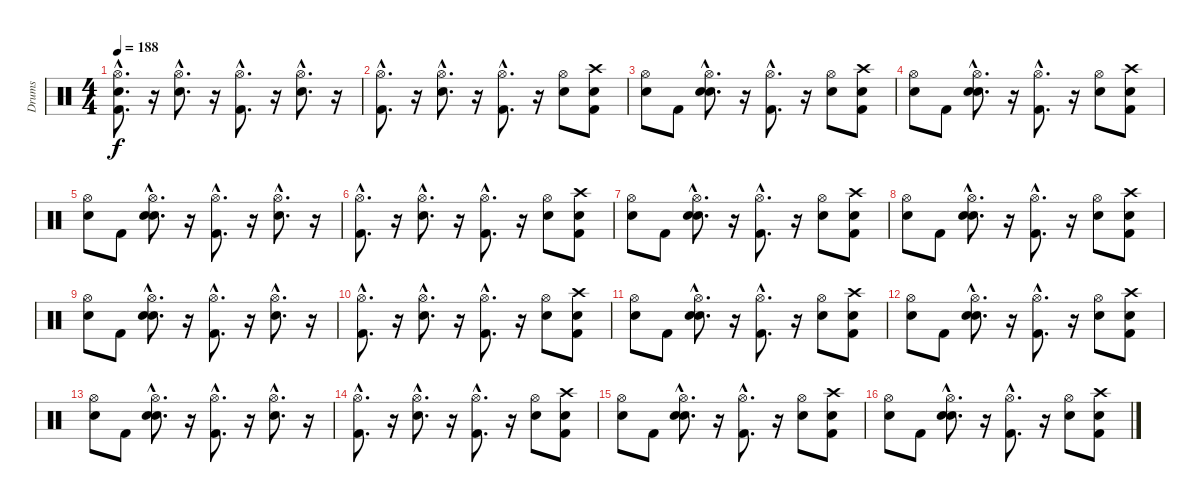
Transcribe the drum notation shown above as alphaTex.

\track ("Drums" "Drums") {instrument percussion}
\staff {score}
\articulation defaults
\ts (4 4)
\tempo 188
\clef neutral
\ks c
("Snare (hit)"{hac} "Kick (hit) 2"{hac} "Hi-Hat (open)"{hac}).8{d dy f} r.16 ("Snare (hit) 2"{hac} "Hi-Hat (open)"{hac}).8{d} r.16 ("Kick (hit) 2"{hac} "Hi-Hat (open)"{hac}).8{d} r.16 ("Snare (hit) 2"{hac} "Hi-Hat (open)"{hac}).8{d} r.16 |
("Kick (hit) 2"{hac} "Hi-Hat (open)"{hac}).8{d} r.16 ("Snare (hit) 2"{hac} "Hi-Hat (open)"{hac}).8{d} r.16 ("Kick (hit) 2"{hac} "Hi-Hat (open)"{hac}).8{d} r.16 ("Snare (hit) 2" "Hi-Hat (open)").8 ("Snare (hit)" "Kick (hit) 2" "Crash high (hit)").8 |
("Snare (hit)" "Hi-Hat (open)").8 "Kick (hit) 2".8 ("Snare (hit)"{hac} "Snare (hit) 2"{hac} "Hi-Hat (open)"{hac}).8{d} r.16 ("Kick (hit) 2"{hac} "Hi-Hat (open)"{hac}).8{d} r.16 ("Snare (hit) 2" "Hi-Hat (open)").8 ("Snare (hit)" "Kick (hit) 2" "Crash high (hit)").8 |
("Snare (hit)" "Hi-Hat (open)").8 "Kick (hit) 2".8 ("Snare (hit)"{hac} "Snare (hit) 2"{hac} "Hi-Hat (open)"{hac}).8{d} r.16 ("Kick (hit) 2"{hac} "Hi-Hat (open)"{hac}).8{d} r.16 ("Snare (hit) 2" "Hi-Hat (open)").8 ("Snare (hit)" "Kick (hit) 2" "Crash high (hit)").8 |
("Snare (hit)" "Hi-Hat (open)").8 "Kick (hit) 2".8 ("Snare (hit)"{hac} "Snare (hit) 2"{hac} "Hi-Hat (open)"{hac}).8{d} r.16 ("Kick (hit) 2"{hac} "Hi-Hat (open)"{hac}).8{d} r.16 ("Snare (hit) 2"{hac} "Hi-Hat (open)"{hac}).8{d} r.16 |
("Kick (hit) 2"{hac} "Hi-Hat (open)"{hac}).8{d} r.16 ("Snare (hit) 2"{hac} "Hi-Hat (open)"{hac}).8{d} r.16 ("Kick (hit) 2"{hac} "Hi-Hat (open)"{hac}).8{d} r.16 ("Snare (hit) 2" "Hi-Hat (open)").8 ("Snare (hit)" "Kick (hit) 2" "Crash high (hit)").8 |
("Snare (hit)" "Hi-Hat (open)").8 "Kick (hit) 2".8 ("Snare (hit)"{hac} "Snare (hit) 2"{hac} "Hi-Hat (open)"{hac}).8{d} r.16 ("Kick (hit) 2"{hac} "Hi-Hat (open)"{hac}).8{d} r.16 ("Snare (hit) 2" "Hi-Hat (open)").8 ("Snare (hit)" "Kick (hit) 2" "Crash high (hit)").8 |
("Snare (hit)" "Hi-Hat (open)").8 "Kick (hit) 2".8 ("Snare (hit)"{hac} "Snare (hit) 2"{hac} "Hi-Hat (open)"{hac}).8{d} r.16 ("Kick (hit) 2"{hac} "Hi-Hat (open)"{hac}).8{d} r.16 ("Snare (hit) 2" "Hi-Hat (open)").8 ("Snare (hit)" "Kick (hit) 2" "Crash high (hit)").8 |
("Snare (hit)" "Hi-Hat (open)").8 "Kick (hit) 2".8 ("Snare (hit)"{hac} "Snare (hit) 2"{hac} "Hi-Hat (open)"{hac}).8{d} r.16 ("Kick (hit) 2"{hac} "Hi-Hat (open)"{hac}).8{d} r.16 ("Snare (hit) 2"{hac} "Hi-Hat (open)"{hac}).8{d} r.16 |
("Kick (hit) 2"{hac} "Hi-Hat (open)"{hac}).8{d} r.16 ("Snare (hit) 2"{hac} "Hi-Hat (open)"{hac}).8{d} r.16 ("Kick (hit) 2"{hac} "Hi-Hat (open)"{hac}).8{d} r.16 ("Snare (hit) 2" "Hi-Hat (open)").8 ("Snare (hit)" "Kick (hit) 2" "Crash high (hit)").8 |
("Snare (hit)" "Hi-Hat (open)").8 "Kick (hit) 2".8 ("Snare (hit)"{hac} "Snare (hit) 2"{hac} "Hi-Hat (open)"{hac}).8{d} r.16 ("Kick (hit) 2"{hac} "Hi-Hat (open)"{hac}).8{d} r.16 ("Snare (hit) 2" "Hi-Hat (open)").8 ("Snare (hit)" "Kick (hit) 2" "Crash high (hit)").8 |
("Snare (hit)" "Hi-Hat (open)").8 "Kick (hit) 2".8 ("Snare (hit)"{hac} "Snare (hit) 2"{hac} "Hi-Hat (open)"{hac}).8{d} r.16 ("Kick (hit) 2"{hac} "Hi-Hat (open)"{hac}).8{d} r.16 ("Snare (hit) 2" "Hi-Hat (open)").8 ("Snare (hit)" "Kick (hit) 2" "Crash high (hit)").8 |
("Snare (hit)" "Hi-Hat (open)").8 "Kick (hit) 2".8 ("Snare (hit)"{hac} "Snare (hit) 2"{hac} "Hi-Hat (open)"{hac}).8{d} r.16 ("Kick (hit) 2"{hac} "Hi-Hat (open)"{hac}).8{d} r.16 ("Snare (hit) 2"{hac} "Hi-Hat (open)"{hac}).8{d} r.16 |
("Kick (hit) 2"{hac} "Hi-Hat (open)"{hac}).8{d} r.16 ("Snare (hit) 2"{hac} "Hi-Hat (open)"{hac}).8{d} r.16 ("Kick (hit) 2"{hac} "Hi-Hat (open)"{hac}).8{d} r.16 ("Snare (hit) 2" "Hi-Hat (open)").8 ("Snare (hit)" "Kick (hit) 2" "Crash high (hit)").8 |
("Snare (hit)" "Hi-Hat (open)").8 "Kick (hit) 2".8 ("Snare (hit)"{hac} "Snare (hit) 2"{hac} "Hi-Hat (open)"{hac}).8{d} r.16 ("Kick (hit) 2"{hac} "Hi-Hat (open)"{hac}).8{d} r.16 ("Snare (hit) 2" "Hi-Hat (open)").8 ("Snare (hit)" "Kick (hit) 2" "Crash high (hit)").8 |
("Snare (hit)" "Hi-Hat (open)").8 "Kick (hit) 2".8 ("Snare (hit)"{hac} "Snare (hit) 2"{hac} "Hi-Hat (open)"{hac}).8{d} r.16 ("Kick (hit) 2"{hac} "Hi-Hat (open)"{hac}).8{d} r.16 ("Snare (hit) 2" "Hi-Hat (open)").8 ("Snare (hit)" "Kick (hit) 2" "Crash high (hit)").8
